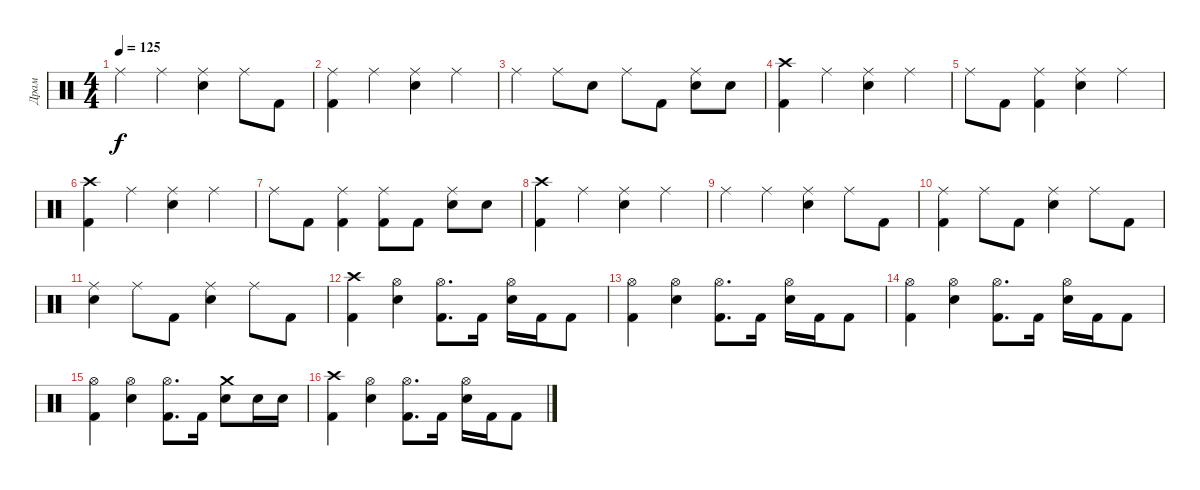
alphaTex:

\track ("Драм" "Драм") {instrument percussion}
\staff {score}
\articulation defaults
\ts (4 4)
\tempo 125
\clef neutral
\ks c "Ride (middle)".4{dy f} "Ride (middle)".4
("Ride (middle)" "Snare (hit) 2").4 "Ride (middle)".8 "Kick (hit) 2".8 |
("Ride (middle)" "Kick (hit) 2").4 "Ride (middle)".4 ("Ride (middle)" "Snare (hit) 2").4 "Ride (middle)".4 |
"Ride (middle)".4 "Ride (middle)".8 "Snare (hit) 2".8 "Ride (middle)".8 "Kick (hit) 2".8 ("Ride (middle)" "Snare (hit) 2").8 "Snare (hit) 2".8 |
("Kick (hit) 2" "Crash high (hit)").4 "Ride (middle)".4 ("Ride (middle)" "Snare (hit) 2").4 "Ride (middle)".4 |
"Ride (middle)".8 "Kick (hit) 2".8 ("Ride (middle)" "Kick (hit) 2").4 ("Ride (middle)" "Snare (hit) 2").4 "Ride (middle)".4 |
("Kick (hit) 2" "Crash high (hit)").4 "Ride (middle)".4 ("Ride (middle)" "Snare (hit) 2").4 "Ride (middle)".4 |
"Ride (middle)".8 "Kick (hit) 2".8 ("Ride (middle)" "Kick (hit) 2").4 ("Ride (middle)" "Kick (hit) 2").8 "Kick (hit) 2".8 ("Ride (middle)" "Snare (hit) 2").8 "Snare (hit) 2".8 |
("Kick (hit) 2" "Crash high (hit)").4 "Ride (middle)".4 ("Ride (middle)" "Snare (hit) 2").4 "Ride (middle)".4 |
"Ride (middle)".4 "Ride (middle)".4 ("Ride (middle)" "Snare (hit) 2").4 "Ride (middle)".8 "Kick (hit) 2".8 |
("Ride (middle)" "Kick (hit) 2").4 "Ride (middle)".8 "Kick (hit) 2".8 ("Ride (middle)" "Snare (hit) 2").4 "Ride (middle)".8 "Kick (hit) 2".8 |
("Ride (middle)" "Snare (hit) 2").4 "Ride (middle)".8 "Kick (hit) 2".8 ("Ride (middle)" "Snare (hit) 2").4 "Ride (middle)".8 "Kick (hit) 2".8 |
("Kick (hit) 2" "Crash high (hit)").4 ("Hi-Hat (open)" "Snare (hit) 2").4 ("Hi-Hat (open)" "Kick (hit) 2").8{d} "Kick (hit) 2".16 ("Hi-Hat (open)" "Snare (hit) 2").16 "Kick (hit) 2".16 "Kick (hit) 2".8 |
("Hi-Hat (open)" "Kick (hit) 2").4 ("Hi-Hat (open)" "Snare (hit) 2").4 ("Hi-Hat (open)" "Kick (hit) 2").8{d} "Kick (hit) 2".16 ("Hi-Hat (open)" "Snare (hit) 2").16 "Kick (hit) 2".16 "Kick (hit) 2".8 |
("Hi-Hat (open)" "Kick (hit) 2").4 ("Hi-Hat (open)" "Snare (hit) 2").4 ("Hi-Hat (open)" "Kick (hit) 2").8{d} "Kick (hit) 2".16 ("Hi-Hat (open)" "Snare (hit) 2").16 "Kick (hit) 2".16 "Kick (hit) 2".8 |
("Hi-Hat (open)" "Kick (hit) 2").4 ("Hi-Hat (open)" "Snare (hit) 2").4 ("Hi-Hat (open)" "Kick (hit) 2").8{d} "Kick (hit) 2".16 ("Snare (hit) 2" "Crash medium (hit)").8 "Snare (hit) 2".16 "Snare (hit) 2".16 |
("Kick (hit) 2" "Crash high (hit)").4 ("Hi-Hat (open)" "Snare (hit) 2").4 ("Hi-Hat (open)" "Kick (hit) 2").8{d} "Kick (hit) 2".16 ("Hi-Hat (open)" "Snare (hit) 2").16 "Kick (hit) 2".16 "Kick (hit) 2".8
